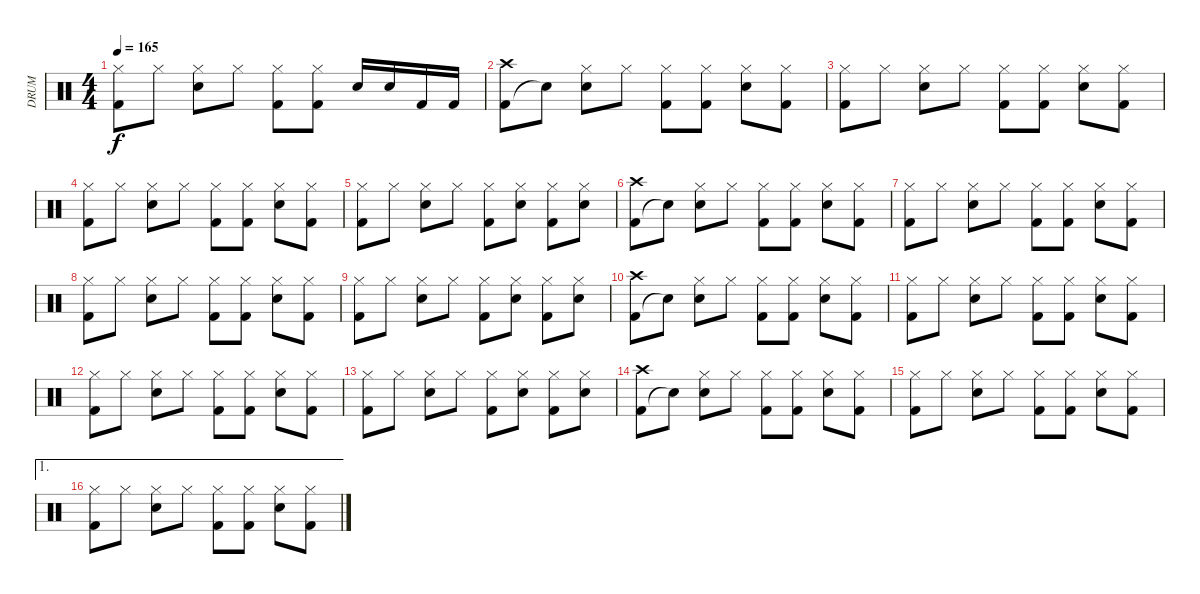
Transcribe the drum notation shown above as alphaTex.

\track ("DRUM" "DRUM") {instrument percussion}
\staff {score}
\articulation defaults
\ts (4 4)
\tempo 165
\clef neutral
\ks c
("Kick (hit) 2" "Hi-Hat (closed)").8{dy f} "Hi-Hat (closed)".8 ("Electric Snare (hit)" "Hi-Hat (closed)").8 "Hi-Hat (closed)".8 ("Kick (hit) 2" "Hi-Hat (closed)").8 ("Kick (hit) 2" "Hi-Hat (closed)").8 "Electric Snare (hit)".16 "Electric Snare (hit)".16 "Kick (hit) 2".16 "Kick (hit) 2".16 |
("Kick (hit) 2" "Crash high (hit)").8 "Snare (hit)"{t}.8 ("Electric Snare (hit)" "Hi-Hat (closed)").8 "Hi-Hat (closed)".8 ("Kick (hit) 2" "Hi-Hat (closed)").8 ("Kick (hit) 2" "Hi-Hat (closed)").8 ("Electric Snare (hit)" "Hi-Hat (closed)").8 ("Kick (hit) 2" "Hi-Hat (closed)").8 |
("Kick (hit) 2" "Hi-Hat (closed)").8 "Hi-Hat (closed)".8 ("Electric Snare (hit)" "Hi-Hat (closed)").8 "Hi-Hat (closed)".8 ("Kick (hit) 2" "Hi-Hat (closed)").8 ("Kick (hit) 2" "Hi-Hat (closed)").8 ("Electric Snare (hit)" "Hi-Hat (closed)").8 ("Kick (hit) 2" "Hi-Hat (closed)").8 |
("Kick (hit) 2" "Hi-Hat (closed)").8 "Hi-Hat (closed)".8 ("Electric Snare (hit)" "Hi-Hat (closed)").8 "Hi-Hat (closed)".8 ("Kick (hit) 2" "Hi-Hat (closed)").8 ("Kick (hit) 2" "Hi-Hat (closed)").8 ("Electric Snare (hit)" "Hi-Hat (closed)").8 ("Kick (hit) 2" "Hi-Hat (closed)").8 |
("Kick (hit) 2" "Hi-Hat (closed)").8 "Hi-Hat (closed)".8 ("Electric Snare (hit)" "Hi-Hat (closed)").8 "Hi-Hat (closed)".8 ("Kick (hit) 2" "Hi-Hat (closed)").8 ("Electric Snare (hit)" "Hi-Hat (closed)").8 ("Kick (hit) 2" "Hi-Hat (closed)").8 ("Electric Snare (hit)" "Hi-Hat (closed)").8 |
("Kick (hit) 2" "Crash high (hit)").8 "Snare (hit)"{t}.8 ("Electric Snare (hit)" "Hi-Hat (closed)").8 "Hi-Hat (closed)".8 ("Kick (hit) 2" "Hi-Hat (closed)").8 ("Kick (hit) 2" "Hi-Hat (closed)").8 ("Electric Snare (hit)" "Hi-Hat (closed)").8 ("Kick (hit) 2" "Hi-Hat (closed)").8 |
("Kick (hit) 2" "Hi-Hat (closed)").8 "Hi-Hat (closed)".8 ("Electric Snare (hit)" "Hi-Hat (closed)").8 "Hi-Hat (closed)".8 ("Kick (hit) 2" "Hi-Hat (closed)").8 ("Kick (hit) 2" "Hi-Hat (closed)").8 ("Electric Snare (hit)" "Hi-Hat (closed)").8 ("Kick (hit) 2" "Hi-Hat (closed)").8 |
("Kick (hit) 2" "Hi-Hat (closed)").8 "Hi-Hat (closed)".8 ("Electric Snare (hit)" "Hi-Hat (closed)").8 "Hi-Hat (closed)".8 ("Kick (hit) 2" "Hi-Hat (closed)").8 ("Kick (hit) 2" "Hi-Hat (closed)").8 ("Electric Snare (hit)" "Hi-Hat (closed)").8 ("Kick (hit) 2" "Hi-Hat (closed)").8 |
("Kick (hit) 2" "Hi-Hat (closed)").8 "Hi-Hat (closed)".8 ("Electric Snare (hit)" "Hi-Hat (closed)").8 "Hi-Hat (closed)".8 ("Kick (hit) 2" "Hi-Hat (closed)").8 ("Electric Snare (hit)" "Hi-Hat (closed)").8 ("Kick (hit) 2" "Hi-Hat (closed)").8 ("Electric Snare (hit)" "Hi-Hat (closed)").8 |
("Kick (hit) 2" "Crash high (hit)").8 "Snare (hit)"{t}.8 ("Electric Snare (hit)" "Hi-Hat (closed)").8 "Hi-Hat (closed)".8 ("Kick (hit) 2" "Hi-Hat (closed)").8 ("Kick (hit) 2" "Hi-Hat (closed)").8 ("Electric Snare (hit)" "Hi-Hat (closed)").8 ("Kick (hit) 2" "Hi-Hat (closed)").8 |
("Kick (hit) 2" "Hi-Hat (closed)").8 "Hi-Hat (closed)".8 ("Electric Snare (hit)" "Hi-Hat (closed)").8 "Hi-Hat (closed)".8 ("Kick (hit) 2" "Hi-Hat (closed)").8 ("Kick (hit) 2" "Hi-Hat (closed)").8 ("Electric Snare (hit)" "Hi-Hat (closed)").8 ("Kick (hit) 2" "Hi-Hat (closed)").8 |
("Kick (hit) 2" "Hi-Hat (closed)").8 "Hi-Hat (closed)".8 ("Electric Snare (hit)" "Hi-Hat (closed)").8 "Hi-Hat (closed)".8 ("Kick (hit) 2" "Hi-Hat (closed)").8 ("Kick (hit) 2" "Hi-Hat (closed)").8 ("Electric Snare (hit)" "Hi-Hat (closed)").8 ("Kick (hit) 2" "Hi-Hat (closed)").8 |
("Kick (hit) 2" "Hi-Hat (closed)").8 "Hi-Hat (closed)".8 ("Electric Snare (hit)" "Hi-Hat (closed)").8 "Hi-Hat (closed)".8 ("Kick (hit) 2" "Hi-Hat (closed)").8 ("Electric Snare (hit)" "Hi-Hat (closed)").8 ("Kick (hit) 2" "Hi-Hat (closed)").8 ("Electric Snare (hit)" "Hi-Hat (closed)").8 |
("Kick (hit) 2" "Crash high (hit)").8 "Snare (hit)"{t}.8 ("Electric Snare (hit)" "Hi-Hat (closed)").8 "Hi-Hat (closed)".8 ("Kick (hit) 2" "Hi-Hat (closed)").8 ("Kick (hit) 2" "Hi-Hat (closed)").8 ("Electric Snare (hit)" "Hi-Hat (closed)").8 ("Kick (hit) 2" "Hi-Hat (closed)").8 |
("Kick (hit) 2" "Hi-Hat (closed)").8 "Hi-Hat (closed)".8 ("Electric Snare (hit)" "Hi-Hat (closed)").8 "Hi-Hat (closed)".8 ("Kick (hit) 2" "Hi-Hat (closed)").8 ("Kick (hit) 2" "Hi-Hat (closed)").8 ("Electric Snare (hit)" "Hi-Hat (closed)").8 ("Kick (hit) 2" "Hi-Hat (closed)").8 |
\ae 1
("Kick (hit) 2" "Hi-Hat (closed)").8 "Hi-Hat (closed)".8 ("Electric Snare (hit)" "Hi-Hat (closed)").8 "Hi-Hat (closed)".8 ("Kick (hit) 2" "Hi-Hat (closed)").8 ("Kick (hit) 2" "Hi-Hat (closed)").8 ("Electric Snare (hit)" "Hi-Hat (closed)").8 ("Kick (hit) 2" "Hi-Hat (closed)").8
